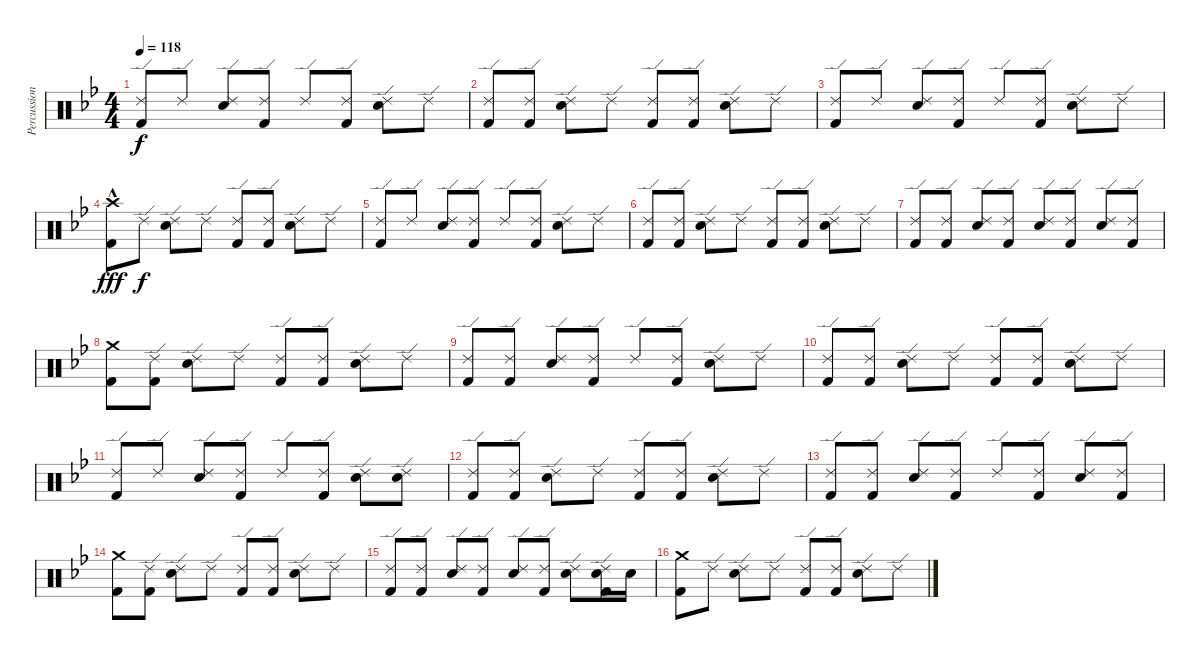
\track ("Percussion" "Percussion") {instrument percussion}
\staff {score}
\articulation defaults
\ts (4 4)
\tempo 118
\clef neutral
\ks bb
("Ride (edge) 2" "Kick (hit) 2").8{dy f} "Ride (edge) 2".8 ("Ride (edge) 2" "Electric Snare (hit)").8 ("Ride (edge) 2" "Kick (hit) 2").8 "Ride (edge) 2".8 ("Ride (edge) 2" "Kick (hit) 2").8 ("Ride (edge) 2" "Electric Snare (hit)").8 "Ride (edge) 2".8 |
("Ride (edge) 2" "Kick (hit) 2").8 ("Ride (edge) 2" "Kick (hit) 2").8 ("Ride (edge) 2" "Electric Snare (hit)").8 "Ride (edge) 2".8 ("Ride (edge) 2" "Kick (hit) 2").8 ("Ride (edge) 2" "Kick (hit) 2").8 ("Ride (edge) 2" "Electric Snare (hit)").8 "Ride (edge) 2".8 |
("Ride (edge) 2" "Kick (hit) 2").8 "Ride (edge) 2".8 ("Ride (edge) 2" "Electric Snare (hit)").8 ("Ride (edge) 2" "Kick (hit) 2").8 "Ride (edge) 2".8 ("Ride (edge) 2" "Kick (hit) 2").8 ("Ride (edge) 2" "Electric Snare (hit)").8 "Ride (edge) 2".8 |
("Crash high (hit)"{hac} "Kick (hit) 2").8{dy fff} "Ride (edge) 2".8{dy f} ("Ride (edge) 2" "Electric Snare (hit)").8 "Ride (edge) 2".8 ("Ride (edge) 2" "Kick (hit) 2").8 ("Ride (edge) 2" "Kick (hit) 2").8 ("Ride (edge) 2" "Electric Snare (hit)").8 "Ride (edge) 2".8 |
("Ride (edge) 2" "Kick (hit) 2").8 "Ride (edge) 2".8 ("Ride (edge) 2" "Electric Snare (hit)").8 ("Ride (edge) 2" "Kick (hit) 2").8 "Ride (edge) 2".8 ("Ride (edge) 2" "Kick (hit) 2").8 ("Ride (edge) 2" "Electric Snare (hit)").8 "Ride (edge) 2".8 |
("Ride (edge) 2" "Kick (hit) 2").8 ("Ride (edge) 2" "Kick (hit) 2").8 ("Ride (edge) 2" "Electric Snare (hit)").8 "Ride (edge) 2".8 ("Ride (edge) 2" "Kick (hit) 2").8 ("Ride (edge) 2" "Kick (hit) 2").8 ("Ride (edge) 2" "Electric Snare (hit)").8 "Ride (edge) 2".8 |
("Ride (edge) 2" "Kick (hit) 2").8 ("Ride (edge) 2" "Kick (hit) 2").8 ("Ride (edge) 2" "Electric Snare (hit)").8 ("Ride (edge) 2" "Kick (hit) 2").8 ("Ride (edge) 2" "Electric Snare (hit)").8 ("Ride (edge) 2" "Kick (hit) 2").8 ("Ride (edge) 2" "Electric Snare (hit)").8 ("Ride (edge) 2" "Kick (hit) 2").8 |
("Crash medium (hit)" "Kick (hit) 2").8 ("Ride (edge) 2" "Kick (hit) 2").8 ("Ride (edge) 2" "Electric Snare (hit)").8 "Ride (edge) 2".8 ("Ride (edge) 2" "Kick (hit) 2").8 ("Ride (edge) 2" "Kick (hit) 2").8 ("Ride (edge) 2" "Electric Snare (hit)").8 "Ride (edge) 2".8 |
("Ride (edge) 2" "Kick (hit) 2").8 ("Ride (edge) 2" "Kick (hit) 2").8 ("Ride (edge) 2" "Electric Snare (hit)").8 ("Ride (edge) 2" "Kick (hit) 2").8 "Ride (edge) 2".8 ("Ride (edge) 2" "Kick (hit) 2").8 ("Ride (edge) 2" "Electric Snare (hit)").8 "Ride (edge) 2".8 |
("Ride (edge) 2" "Kick (hit) 2").8 ("Ride (edge) 2" "Kick (hit) 2").8 ("Ride (edge) 2" "Electric Snare (hit)").8 "Ride (edge) 2".8 ("Ride (edge) 2" "Kick (hit) 2").8 ("Ride (edge) 2" "Kick (hit) 2").8 ("Ride (edge) 2" "Electric Snare (hit)").8 "Ride (edge) 2".8 |
("Ride (edge) 2" "Kick (hit) 2").8 "Ride (edge) 2".8 ("Ride (edge) 2" "Electric Snare (hit)").8 ("Ride (edge) 2" "Kick (hit) 2").8 "Ride (edge) 2".8 ("Ride (edge) 2" "Kick (hit) 2").8 ("Ride (edge) 2" "Electric Snare (hit)").8 ("Ride (edge) 2" "Electric Snare (hit)").8 |
("Ride (edge) 2" "Kick (hit) 2").8 ("Ride (edge) 2" "Kick (hit) 2").8 ("Ride (edge) 2" "Electric Snare (hit)").8 "Ride (edge) 2".8 ("Ride (edge) 2" "Kick (hit) 2").8 ("Ride (edge) 2" "Kick (hit) 2").8 ("Ride (edge) 2" "Electric Snare (hit)").8 "Ride (edge) 2".8 |
("Ride (edge) 2" "Kick (hit) 2").8 ("Ride (edge) 2" "Kick (hit) 2").8 ("Ride (edge) 2" "Electric Snare (hit)").8 ("Ride (edge) 2" "Kick (hit) 2").8 "Ride (edge) 2".8 ("Ride (edge) 2" "Kick (hit) 2").8 ("Ride (edge) 2" "Electric Snare (hit)").8 ("Ride (edge) 2" "Kick (hit) 2").8 |
("Crash medium (hit)" "Kick (hit) 2").8 ("Ride (edge) 2" "Kick (hit) 2").8 ("Ride (edge) 2" "Electric Snare (hit)").8 "Ride (edge) 2".8 ("Ride (edge) 2" "Kick (hit) 2").8 ("Ride (edge) 2" "Kick (hit) 2").8 ("Ride (edge) 2" "Electric Snare (hit)").8 "Ride (edge) 2".8 |
("Ride (edge) 2" "Kick (hit) 2").8 ("Ride (edge) 2" "Kick (hit) 2").8 ("Ride (edge) 2" "Electric Snare (hit)").8 ("Ride (edge) 2" "Kick (hit) 2").8 ("Ride (edge) 2" "Electric Snare (hit)").8 ("Ride (edge) 2" "Kick (hit) 2").8 ("Ride (edge) 2" "Electric Snare (hit)").8 ("Ride (edge) 2" "Electric Snare (hit)" "Kick (hit) 2").16 "Electric Snare (hit)".16 |
("Crash medium (hit)" "Kick (hit) 2").8 "Ride (edge) 2".8 ("Ride (edge) 2" "Electric Snare (hit)").8 "Ride (edge) 2".8 ("Ride (edge) 2" "Kick (hit) 2").8 ("Ride (edge) 2" "Kick (hit) 2").8 ("Ride (edge) 2" "Electric Snare (hit)").8 "Ride (edge) 2".8
